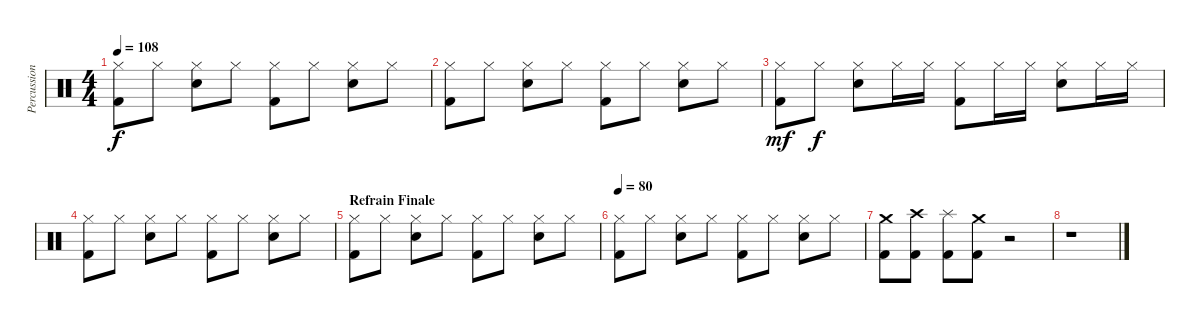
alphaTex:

\track ("Percussions" "Percussion") {instrument percussion}
\staff {score}
\articulation defaults
\ts (4 4)
\tempo 108
\clef neutral
\ks c
("Hi-Hat (closed)" "Kick (hit) 2").8{dy f} "Hi-Hat (closed)".8 ("Hi-Hat (closed)" "Electric Snare (hit)").8 "Hi-Hat (closed)".8 ("Hi-Hat (closed)" "Kick (hit) 2").8 "Hi-Hat (closed)".8 ("Hi-Hat (closed)" "Electric Snare (hit)").8 "Hi-Hat (closed)".8 |
("Hi-Hat (closed)" "Kick (hit) 2").8 "Hi-Hat (closed)".8 ("Hi-Hat (closed)" "Electric Snare (hit)").8 "Hi-Hat (closed)".8 ("Hi-Hat (closed)" "Kick (hit) 2").8 "Hi-Hat (closed)".8 ("Hi-Hat (closed)" "Electric Snare (hit)").8 "Hi-Hat (closed)".8 |
("Hi-Hat (closed)" "Kick (hit) 2").8{dy mf} "Hi-Hat (closed)".8{dy f} ("Hi-Hat (closed)" "Electric Snare (hit)").8 "Hi-Hat (closed)".16 "Hi-Hat (closed)".16 ("Hi-Hat (closed)" "Kick (hit) 2").8 "Hi-Hat (closed)".16 "Hi-Hat (closed)".16 ("Hi-Hat (closed)" "Electric Snare (hit)").8 "Hi-Hat (closed)".16 "Hi-Hat (closed)".16 |
("Hi-Hat (closed)" "Kick (hit) 2").8 "Hi-Hat (closed)".8 ("Hi-Hat (closed)" "Electric Snare (hit)").8 "Hi-Hat (closed)".8 ("Hi-Hat (closed)" "Kick (hit) 2").8 "Hi-Hat (closed)".8 ("Hi-Hat (closed)" "Electric Snare (hit)").8 "Hi-Hat (closed)".8 |
\section ("" "Refrain Finale")
("Hi-Hat (closed)" "Kick (hit) 2").8 "Hi-Hat (closed)".8 ("Hi-Hat (closed)" "Electric Snare (hit)").8 "Hi-Hat (closed)".8 ("Hi-Hat (closed)" "Kick (hit) 2").8 "Hi-Hat (closed)".8 ("Hi-Hat (closed)" "Electric Snare (hit)").8 "Hi-Hat (closed)".8 |
\tempo 80
("Hi-Hat (closed)" "Kick (hit) 2").8 "Hi-Hat (closed)".8 ("Hi-Hat (closed)" "Electric Snare (hit)").8 "Hi-Hat (closed)".8 ("Hi-Hat (closed)" "Kick (hit) 2").8 "Hi-Hat (closed)".8 ("Hi-Hat (closed)" "Electric Snare (hit)").8 "Hi-Hat (closed)".8 |
("Crash medium (hit)" "Kick (hit) 2").8 ("Crash high (hit)" "Kick (hit) 2").8 ("Splash (hit)" "Kick (hit) 2").8 ("Crash medium (hit)" "Kick (hit) 2").8 r.2 |
r.1
